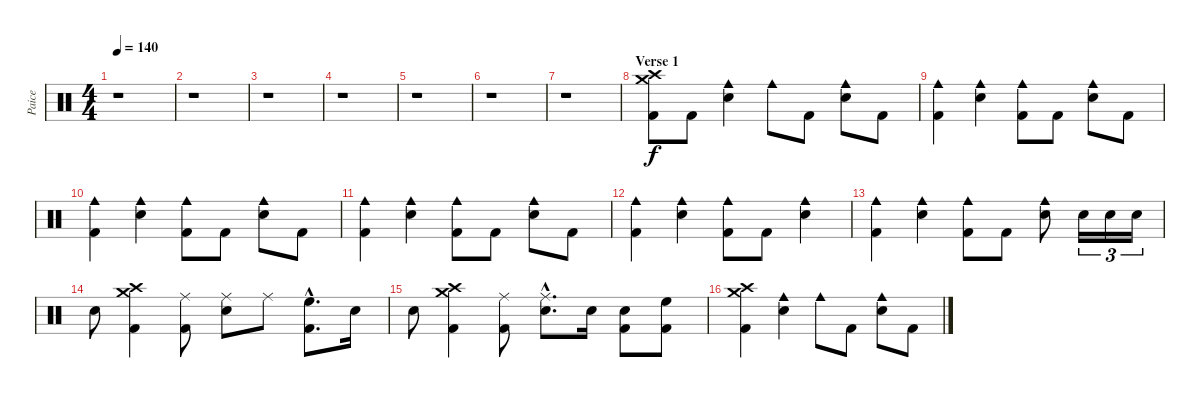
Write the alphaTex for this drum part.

\track ("Paice" "Paice") {instrument percussion}
\staff {score}
\articulation defaults
\ts (4 4)
\tempo 140
\clef neutral
\ks c
r.1{dy f} |
r.1 |
r.1 |
r.1 |
r.1 |
r.1 |
r.1 |
\section ("" "Verse 1")
("Crash high (hit)" "Crash medium (hit)" "Kick (hit) 2").8 "Kick (hit) 2".8 ("Cowbell medium (hit)" "Electric Snare (hit)").4 "Cowbell medium (hit)".8 "Kick (hit) 2".8 ("Cowbell medium (hit)" "Electric Snare (hit)").8 "Kick (hit) 2".8 |
("Cowbell medium (hit)" "Kick (hit) 2").4 ("Cowbell medium (hit)" "Electric Snare (hit)").4 ("Cowbell medium (hit)" "Kick (hit) 2").8 "Kick (hit) 2".8 ("Cowbell medium (hit)" "Electric Snare (hit)").8 "Kick (hit) 2".8 |
("Cowbell medium (hit)" "Kick (hit) 2").4 ("Cowbell medium (hit)" "Electric Snare (hit)").4 ("Cowbell medium (hit)" "Kick (hit) 2").8 "Kick (hit) 2".8 ("Cowbell medium (hit)" "Electric Snare (hit)").8 "Kick (hit) 2".8 |
("Cowbell medium (hit)" "Kick (hit) 2").4 ("Cowbell medium (hit)" "Electric Snare (hit)").4 ("Cowbell medium (hit)" "Kick (hit) 2").8 "Kick (hit) 2".8 ("Cowbell medium (hit)" "Electric Snare (hit)").8 "Kick (hit) 2".8 |
("Cowbell medium (hit)" "Kick (hit) 2").4 ("Cowbell medium (hit)" "Electric Snare (hit)").4 ("Cowbell medium (hit)" "Kick (hit) 2").8 "Kick (hit) 2".8 ("Cowbell medium (hit)" "Electric Snare (hit)").4 |
("Cowbell medium (hit)" "Kick (hit) 2").4 ("Cowbell medium (hit)" "Electric Snare (hit)").4 ("Cowbell medium (hit)" "Kick (hit) 2").8 "Kick (hit) 2".8 ("Cowbell medium (hit)" "Electric Snare (hit)").8 "Electric Snare (hit)".16{tu (3 2)} "Electric Snare (hit)".16{tu (3 2)} "Electric Snare (hit)".16{tu (3 2)} |
"Electric Snare (hit)".8 ("Crash high (hit)" "Crash medium (hit)" "Kick (hit) 2").4 ("Ride (middle)" "Kick (hit) 2").8 ("Ride (middle)" "Electric Snare (hit)").8 "Ride (middle)".8 ("High Floor Tom (hit)"{hac} "Kick (hit) 2"{hac}).8{d} "Electric Snare (hit)".16 |
"Electric Snare (hit)".8 ("Crash high (hit)" "Crash medium (hit)" "Kick (hit) 2").4 ("Ride (middle)" "Kick (hit) 2").8 ("Ride (middle)"{hac} "Electric Snare (hit)"{hac}).8{d} "Electric Snare (hit)".16 ("Electric Snare (hit)" "Kick (hit) 2").8 ("High Floor Tom (hit)" "Kick (hit) 2").8 |
("Crash high (hit)" "Crash medium (hit)" "Kick (hit) 2").4 ("Cowbell medium (hit)" "Electric Snare (hit)").4 "Cowbell medium (hit)".8 "Kick (hit) 2".8 ("Cowbell medium (hit)" "Electric Snare (hit)").8 "Kick (hit) 2".8
